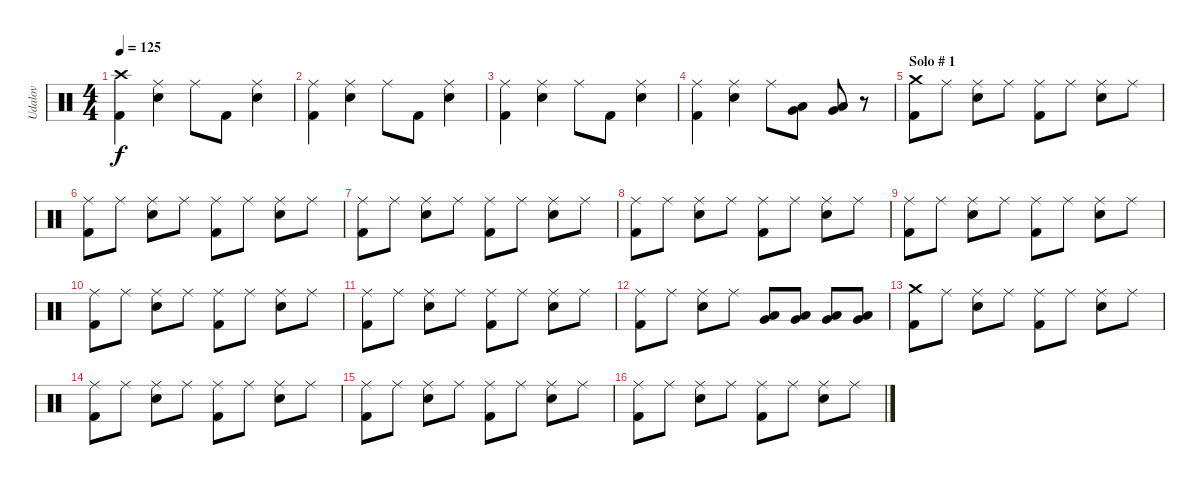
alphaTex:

\track ("Udalov" "Udalov") {instrument percussion}
\staff {score}
\articulation defaults
\ts (4 4)
\tempo 125
\clef neutral
\ks c
("Kick (hit) 2" "Crash high (hit)").4{dy f} ("Snare (hit) 2" "Ride (middle)").4 "Ride (middle)".8 "Kick (hit) 2".8 ("Snare (hit) 2" "Ride (middle)").4 |
("Kick (hit) 2" "Ride (middle)").4 ("Snare (hit) 2" "Ride (middle)").4 "Ride (middle)".8 "Kick (hit) 2".8 ("Snare (hit) 2" "Ride (middle)").4 |
("Kick (hit) 2" "Ride (middle)").4 ("Snare (hit) 2" "Ride (middle)").4 "Ride (middle)".8 "Kick (hit) 2".8 ("Snare (hit) 2" "Ride (middle)").4 |
("Kick (hit) 2" "Ride (middle)").4 ("Snare (hit) 2" "Ride (middle)").4 "Ride (middle)".8 ("Low Tom (hit)" "Very Low Tom (hit)").8 ("Low Tom (hit)" "Very Low Tom (hit)").8 r.8 |
\section ("" "Solo # 1")
("Kick (hit) 2" "Crash medium (hit)").8 "Ride (middle)".8 ("Snare (hit) 2" "Ride (middle)").8 "Ride (middle)".8 ("Kick (hit) 2" "Ride (middle)").8 "Ride (middle)".8 ("Snare (hit) 2" "Ride (middle)").8 "Ride (middle)".8 |
("Kick (hit) 2" "Ride (middle)").8 "Ride (middle)".8 ("Snare (hit) 2" "Ride (middle)").8 "Ride (middle)".8 ("Kick (hit) 2" "Ride (middle)").8 "Ride (middle)".8 ("Snare (hit) 2" "Ride (middle)").8 "Ride (middle)".8 |
("Kick (hit) 2" "Ride (middle)").8 "Ride (middle)".8 ("Snare (hit) 2" "Ride (middle)").8 "Ride (middle)".8 ("Kick (hit) 2" "Ride (middle)").8 "Ride (middle)".8 ("Snare (hit) 2" "Ride (middle)").8 "Ride (middle)".8 |
("Kick (hit) 2" "Ride (middle)").8 "Ride (middle)".8 ("Snare (hit) 2" "Ride (middle)").8 "Ride (middle)".8 ("Kick (hit) 2" "Ride (middle)").8 "Ride (middle)".8 ("Snare (hit) 2" "Ride (middle)").8 "Ride (middle)".8 |
("Kick (hit) 2" "Ride (middle)").8 "Ride (middle)".8 ("Snare (hit) 2" "Ride (middle)").8 "Ride (middle)".8 ("Kick (hit) 2" "Ride (middle)").8 "Ride (middle)".8 ("Snare (hit) 2" "Ride (middle)").8 "Ride (middle)".8 |
("Kick (hit) 2" "Ride (middle)").8 "Ride (middle)".8 ("Snare (hit) 2" "Ride (middle)").8 "Ride (middle)".8 ("Kick (hit) 2" "Ride (middle)").8 "Ride (middle)".8 ("Snare (hit) 2" "Ride (middle)").8 "Ride (middle)".8 |
("Kick (hit) 2" "Ride (middle)").8 "Ride (middle)".8 ("Snare (hit) 2" "Ride (middle)").8 "Ride (middle)".8 ("Kick (hit) 2" "Ride (middle)").8 "Ride (middle)".8 ("Snare (hit) 2" "Ride (middle)").8 "Ride (middle)".8 |
("Kick (hit) 2" "Ride (middle)").8 "Ride (middle)".8 ("Snare (hit) 2" "Ride (middle)").8 "Ride (middle)".8 ("Low Tom (hit)" "Very Low Tom (hit)").8 ("Low Tom (hit)" "Very Low Tom (hit)").8 ("Low Tom (hit)" "Very Low Tom (hit)").8 ("Low Tom (hit)" "Very Low Tom (hit)").8 |
("Kick (hit) 2" "Crash medium (hit)").8 "Ride (middle)".8 ("Snare (hit) 2" "Ride (middle)").8 "Ride (middle)".8 ("Kick (hit) 2" "Ride (middle)").8 "Ride (middle)".8 ("Snare (hit) 2" "Ride (middle)").8 "Ride (middle)".8 |
("Kick (hit) 2" "Ride (middle)").8 "Ride (middle)".8 ("Snare (hit) 2" "Ride (middle)").8 "Ride (middle)".8 ("Kick (hit) 2" "Ride (middle)").8 "Ride (middle)".8 ("Snare (hit) 2" "Ride (middle)").8 "Ride (middle)".8 |
("Kick (hit) 2" "Ride (middle)").8 "Ride (middle)".8 ("Snare (hit) 2" "Ride (middle)").8 "Ride (middle)".8 ("Kick (hit) 2" "Ride (middle)").8 "Ride (middle)".8 ("Snare (hit) 2" "Ride (middle)").8 "Ride (middle)".8 |
("Kick (hit) 2" "Ride (middle)").8 "Ride (middle)".8 ("Snare (hit) 2" "Ride (middle)").8 "Ride (middle)".8 ("Kick (hit) 2" "Ride (middle)").8 "Ride (middle)".8 ("Snare (hit) 2" "Ride (middle)").8 "Ride (middle)".8
